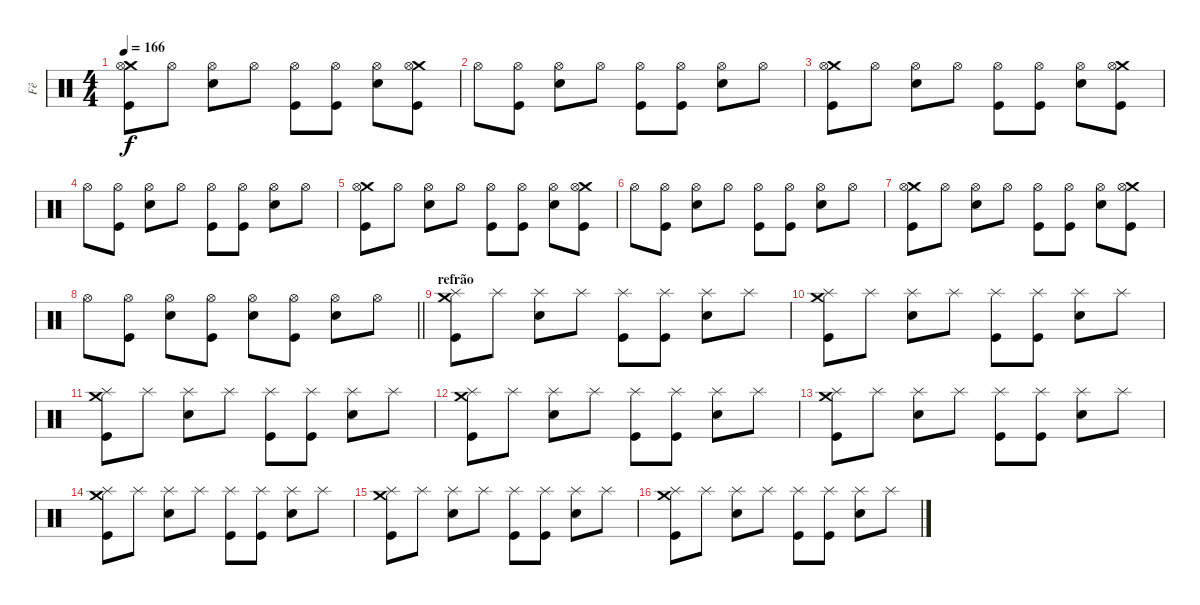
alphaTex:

\track ("Fê" "Fê") {instrument percussion}
\staff {score}
\articulation defaults
\ts (4 4)
\tempo 166
\clef neutral
\ks c
("Crash medium (hit)" "Hi-Hat (open)" "Kick (hit)").8{dy f} "Hi-Hat (open)".8 ("Hi-Hat (open)" "Electric Snare (hit)").8 "Hi-Hat (open)".8 ("Hi-Hat (open)" "Kick (hit)").8 ("Hi-Hat (open)" "Kick (hit)").8 ("Hi-Hat (open)" "Electric Snare (hit)").8 ("Crash medium (hit)" "Hi-Hat (open)" "Kick (hit)").8 |
"Hi-Hat (open)".8 ("Hi-Hat (open)" "Kick (hit)").8 ("Hi-Hat (open)" "Electric Snare (hit)").8 "Hi-Hat (open)".8 ("Hi-Hat (open)" "Kick (hit)").8 ("Hi-Hat (open)" "Kick (hit)").8 ("Hi-Hat (open)" "Electric Snare (hit)").8 "Hi-Hat (open)".8 |
("Crash medium (hit)" "Hi-Hat (open)" "Kick (hit)").8 "Hi-Hat (open)".8 ("Hi-Hat (open)" "Electric Snare (hit)").8 "Hi-Hat (open)".8 ("Hi-Hat (open)" "Kick (hit)").8 ("Hi-Hat (open)" "Kick (hit)").8 ("Hi-Hat (open)" "Electric Snare (hit)").8 ("Crash medium (hit)" "Hi-Hat (open)" "Kick (hit)").8 |
"Hi-Hat (open)".8 ("Hi-Hat (open)" "Kick (hit)").8 ("Hi-Hat (open)" "Electric Snare (hit)").8 "Hi-Hat (open)".8 ("Hi-Hat (open)" "Kick (hit)").8 ("Hi-Hat (open)" "Kick (hit)").8 ("Hi-Hat (open)" "Electric Snare (hit)").8 "Hi-Hat (open)".8 |
("Crash medium (hit)" "Hi-Hat (open)" "Kick (hit)").8 "Hi-Hat (open)".8 ("Hi-Hat (open)" "Electric Snare (hit)").8 "Hi-Hat (open)".8 ("Hi-Hat (open)" "Kick (hit)").8 ("Hi-Hat (open)" "Kick (hit)").8 ("Hi-Hat (open)" "Electric Snare (hit)").8 ("Crash medium (hit)" "Hi-Hat (open)" "Kick (hit)").8 |
"Hi-Hat (open)".8 ("Hi-Hat (open)" "Kick (hit)").8 ("Hi-Hat (open)" "Electric Snare (hit)").8 "Hi-Hat (open)".8 ("Hi-Hat (open)" "Kick (hit)").8 ("Hi-Hat (open)" "Kick (hit)").8 ("Hi-Hat (open)" "Electric Snare (hit)").8 "Hi-Hat (open)".8 |
("Crash medium (hit)" "Hi-Hat (open)" "Kick (hit)").8 "Hi-Hat (open)".8 ("Hi-Hat (open)" "Electric Snare (hit)").8 "Hi-Hat (open)".8 ("Hi-Hat (open)" "Kick (hit)").8 ("Hi-Hat (open)" "Kick (hit)").8 ("Hi-Hat (open)" "Electric Snare (hit)").8 ("Crash medium (hit)" "Hi-Hat (open)" "Kick (hit)").8 |
\barLineRight lightlight "Hi-Hat (open)".8
("Hi-Hat (open)" "Kick (hit)").8 ("Hi-Hat (open)" "Electric Snare (hit)").8 ("Hi-Hat (open)" "Kick (hit)").8 ("Hi-Hat (open)" "Electric Snare (hit)").8 ("Hi-Hat (open)" "Kick (hit)").8 ("Hi-Hat (open)" "Electric Snare (hit)").8 "Hi-Hat (open)".8 |
\section ("" "refrão")
("Crash medium (hit)" "Splash (hit)" "Kick (hit)").8 "Splash (hit)".8 ("Splash (hit)" "Electric Snare (hit)").8 "Splash (hit)".8 ("Splash (hit)" "Kick (hit)").8 ("Splash (hit)" "Kick (hit)").8 ("Splash (hit)" "Electric Snare (hit)").8 "Splash (hit)".8 |
("Crash medium (hit)" "Splash (hit)" "Kick (hit)").8 "Splash (hit)".8 ("Splash (hit)" "Electric Snare (hit)").8 "Splash (hit)".8 ("Splash (hit)" "Kick (hit)").8 ("Splash (hit)" "Kick (hit)").8 ("Splash (hit)" "Electric Snare (hit)").8 "Splash (hit)".8 |
("Crash medium (hit)" "Splash (hit)" "Kick (hit)").8 "Splash (hit)".8 ("Splash (hit)" "Electric Snare (hit)").8 "Splash (hit)".8 ("Splash (hit)" "Kick (hit)").8 ("Splash (hit)" "Kick (hit)").8 ("Splash (hit)" "Electric Snare (hit)").8 "Splash (hit)".8 |
("Crash medium (hit)" "Splash (hit)" "Kick (hit)").8 "Splash (hit)".8 ("Splash (hit)" "Electric Snare (hit)").8 "Splash (hit)".8 ("Splash (hit)" "Kick (hit)").8 ("Splash (hit)" "Kick (hit)").8 ("Splash (hit)" "Electric Snare (hit)").8 "Splash (hit)".8 |
("Crash medium (hit)" "Splash (hit)" "Kick (hit)").8 "Splash (hit)".8 ("Splash (hit)" "Electric Snare (hit)").8 "Splash (hit)".8 ("Splash (hit)" "Kick (hit)").8 ("Splash (hit)" "Kick (hit)").8 ("Splash (hit)" "Electric Snare (hit)").8 "Splash (hit)".8 |
("Crash medium (hit)" "Splash (hit)" "Kick (hit)").8 "Splash (hit)".8 ("Splash (hit)" "Electric Snare (hit)").8 "Splash (hit)".8 ("Splash (hit)" "Kick (hit)").8 ("Splash (hit)" "Kick (hit)").8 ("Splash (hit)" "Electric Snare (hit)").8 "Splash (hit)".8 |
("Crash medium (hit)" "Splash (hit)" "Kick (hit)").8 "Splash (hit)".8 ("Splash (hit)" "Electric Snare (hit)").8 "Splash (hit)".8 ("Splash (hit)" "Kick (hit)").8 ("Splash (hit)" "Kick (hit)").8 ("Splash (hit)" "Electric Snare (hit)").8 "Splash (hit)".8 |
("Crash medium (hit)" "Splash (hit)" "Kick (hit)").8 "Splash (hit)".8 ("Splash (hit)" "Electric Snare (hit)").8 "Splash (hit)".8 ("Splash (hit)" "Kick (hit)").8 ("Splash (hit)" "Kick (hit)").8 ("Splash (hit)" "Electric Snare (hit)").8 "Splash (hit)".8
